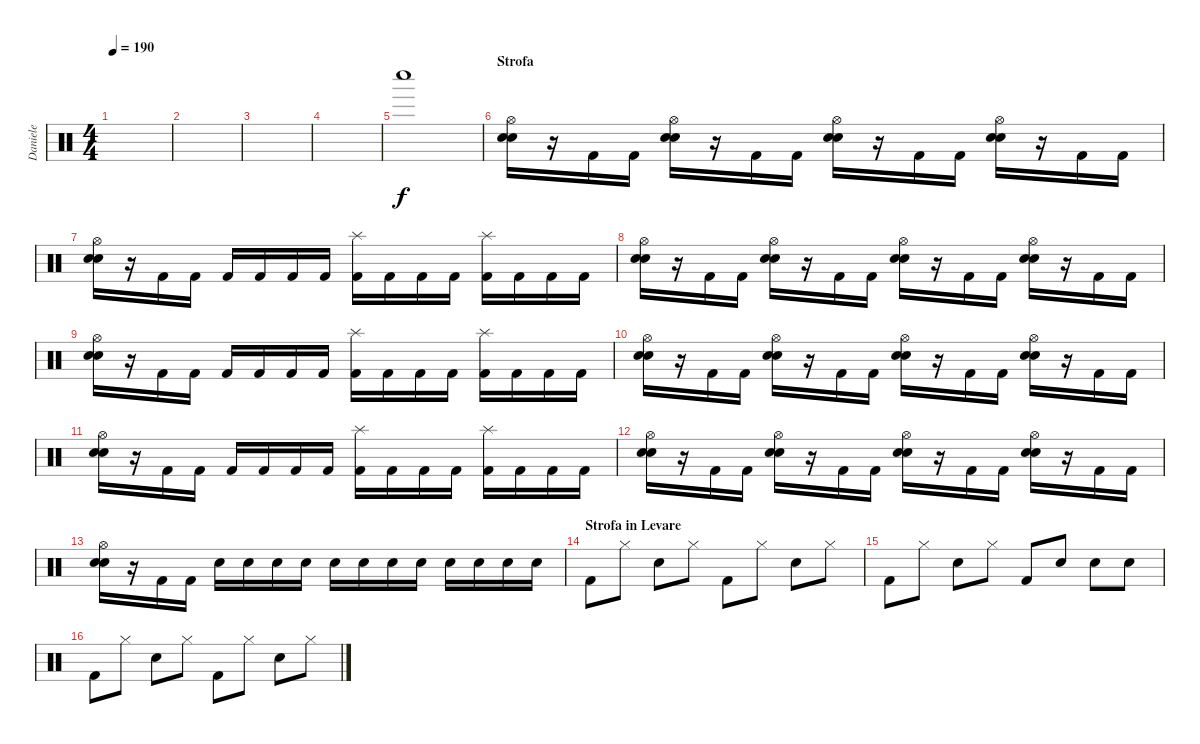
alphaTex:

\track ("Daniele" "Daniele") {instrument percussion}
\staff {score}
\articulation defaults
\ts (4 4)
\tempo 190
\clef neutral
\ks c
|
|
|
|
"Whistle low (hit)".1 |
\section ("" "Strofa")
("Hi-Hat (open)" "Electric Snare (hit)" "Snare (hit) 2").16 r.16 "Kick (hit) 2".16 "Kick (hit) 2".16 ("Hi-Hat (open)" "Electric Snare (hit)" "Snare (hit) 2").16 r.16 "Kick (hit) 2".16 "Kick (hit) 2".16 ("Hi-Hat (open)" "Electric Snare (hit)" "Snare (hit) 2").16 r.16 "Kick (hit) 2".16 "Kick (hit) 2".16 ("Hi-Hat (open)" "Electric Snare (hit)" "Snare (hit) 2").16 r.16 "Kick (hit) 2".16 "Kick (hit) 2".16 |
("Hi-Hat (open)" "Electric Snare (hit)" "Snare (hit) 2").16 r.16 "Kick (hit) 2".16 "Kick (hit) 2".16 "Kick (hit) 2".16 "Kick (hit) 2".16 "Kick (hit) 2".16 "Kick (hit) 2".16 ("Splash (hit)" "Kick (hit) 2").16 "Kick (hit) 2".16 "Kick (hit) 2".16 "Kick (hit) 2".16 ("Splash (hit)" "Kick (hit) 2").16 "Kick (hit) 2".16 "Kick (hit) 2".16 "Kick (hit) 2".16 |
("Hi-Hat (open)" "Electric Snare (hit)" "Snare (hit) 2").16 r.16 "Kick (hit) 2".16 "Kick (hit) 2".16 ("Hi-Hat (open)" "Electric Snare (hit)" "Snare (hit) 2").16 r.16 "Kick (hit) 2".16 "Kick (hit) 2".16 ("Hi-Hat (open)" "Electric Snare (hit)" "Snare (hit) 2").16 r.16 "Kick (hit) 2".16 "Kick (hit) 2".16 ("Hi-Hat (open)" "Electric Snare (hit)" "Snare (hit) 2").16 r.16 "Kick (hit) 2".16 "Kick (hit) 2".16 |
("Hi-Hat (open)" "Electric Snare (hit)" "Snare (hit) 2").16 r.16 "Kick (hit) 2".16 "Kick (hit) 2".16 "Kick (hit) 2".16 "Kick (hit) 2".16 "Kick (hit) 2".16 "Kick (hit) 2".16 ("Splash (hit)" "Kick (hit) 2").16 "Kick (hit) 2".16 "Kick (hit) 2".16 "Kick (hit) 2".16 ("Splash (hit)" "Kick (hit) 2").16 "Kick (hit) 2".16 "Kick (hit) 2".16 "Kick (hit) 2".16 |
("Hi-Hat (open)" "Electric Snare (hit)" "Snare (hit) 2").16 r.16 "Kick (hit) 2".16 "Kick (hit) 2".16 ("Hi-Hat (open)" "Electric Snare (hit)" "Snare (hit) 2").16 r.16 "Kick (hit) 2".16 "Kick (hit) 2".16 ("Hi-Hat (open)" "Electric Snare (hit)" "Snare (hit) 2").16 r.16 "Kick (hit) 2".16 "Kick (hit) 2".16 ("Hi-Hat (open)" "Electric Snare (hit)" "Snare (hit) 2").16 r.16 "Kick (hit) 2".16 "Kick (hit) 2".16 |
("Hi-Hat (open)" "Electric Snare (hit)" "Snare (hit) 2").16 r.16 "Kick (hit) 2".16 "Kick (hit) 2".16 "Kick (hit) 2".16 "Kick (hit) 2".16 "Kick (hit) 2".16 "Kick (hit) 2".16 ("Splash (hit)" "Kick (hit) 2").16 "Kick (hit) 2".16 "Kick (hit) 2".16 "Kick (hit) 2".16 ("Splash (hit)" "Kick (hit) 2").16 "Kick (hit) 2".16 "Kick (hit) 2".16 "Kick (hit) 2".16 |
("Hi-Hat (open)" "Electric Snare (hit)" "Snare (hit) 2").16 r.16 "Kick (hit) 2".16 "Kick (hit) 2".16 ("Hi-Hat (open)" "Electric Snare (hit)" "Snare (hit) 2").16 r.16 "Kick (hit) 2".16 "Kick (hit) 2".16 ("Hi-Hat (open)" "Electric Snare (hit)" "Snare (hit) 2").16 r.16 "Kick (hit) 2".16 "Kick (hit) 2".16 ("Hi-Hat (open)" "Electric Snare (hit)" "Snare (hit) 2").16 r.16 "Kick (hit) 2".16 "Kick (hit) 2".16 |
("Hi-Hat (open)" "Electric Snare (hit)" "Snare (hit) 2").16 r.16 "Kick (hit) 2".16 "Kick (hit) 2".16 "Electric Snare (hit)".16 "Electric Snare (hit)".16 "Electric Snare (hit)".16 "Electric Snare (hit)".16 "Electric Snare (hit)".16 "Electric Snare (hit)".16 "Electric Snare (hit)".16 "Electric Snare (hit)".16 "Electric Snare (hit)".16 "Electric Snare (hit)".16 "Electric Snare (hit)".16 "Electric Snare (hit)".16 |
\section ("" "Strofa in Levare")
"Kick (hit) 2".8 "Hi-Hat (closed)".8 "Electric Snare (hit)".8 "Hi-Hat (closed)".8 "Kick (hit) 2".8 "Hi-Hat (closed)".8 "Electric Snare (hit)".8 "Hi-Hat (closed)".8 |
"Kick (hit) 2".8 "Hi-Hat (closed)".8 "Electric Snare (hit)".8 "Hi-Hat (closed)".8 "Kick (hit) 2".8 "Electric Snare (hit)".8 "Electric Snare (hit)".8 "Electric Snare (hit)".8 |
"Kick (hit) 2".8 "Hi-Hat (closed)".8 "Electric Snare (hit)".8 "Hi-Hat (closed)".8 "Kick (hit) 2".8 "Hi-Hat (closed)".8 "Electric Snare (hit)".8 "Hi-Hat (closed)".8
